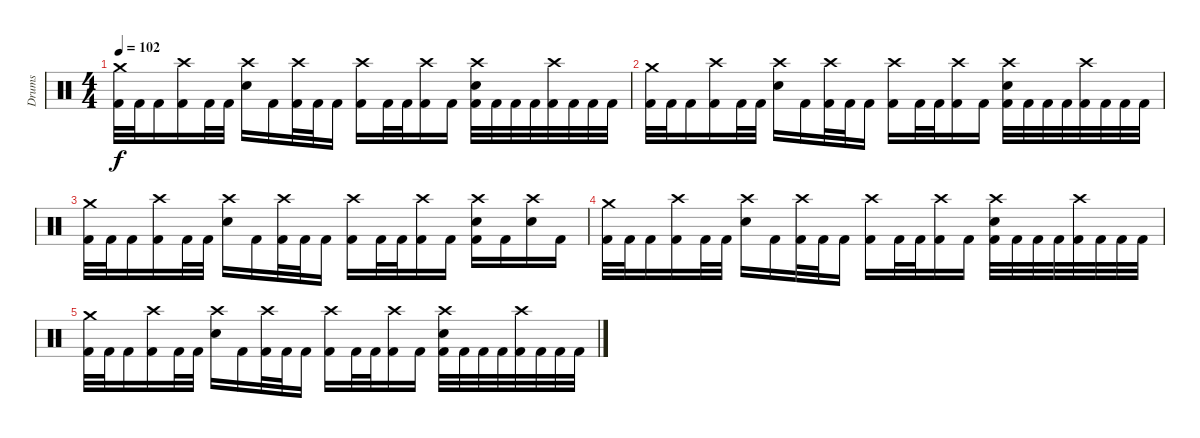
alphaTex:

\track ("Drums" "Drums") {instrument percussion}
\staff {score}
\articulation defaults
\ts (4 4)
\tempo 102
\clef neutral
\ks c
("Crash medium (hit)" "Kick (hit) 2").32{dy f} "Kick (hit) 2".32 "Kick (hit) 2".16 ("Crash high (hit)" "Kick (hit) 2").16 "Kick (hit) 2".32 "Kick (hit) 2".32 ("Crash high (hit)" "Snare (hit) 2").16 "Kick (hit) 2".16 ("Crash high (hit)" "Kick (hit) 2").32 "Kick (hit) 2".32 "Kick (hit) 2".16 ("Crash high (hit)" "Kick (hit) 2").16 "Kick (hit) 2".32 "Kick (hit) 2".32 ("Crash high (hit)" "Kick (hit) 2").16 "Kick (hit) 2".16 ("Crash high (hit)" "Snare (hit) 2" "Kick (hit) 2").32 "Kick (hit) 2".32 "Kick (hit) 2".32 "Kick (hit) 2".32 ("Crash high (hit)" "Kick (hit) 2").32 "Kick (hit) 2".32 "Kick (hit) 2".32 "Kick (hit) 2".32 |
("Crash medium (hit)" "Kick (hit) 2").32 "Kick (hit) 2".32 "Kick (hit) 2".16 ("Crash high (hit)" "Kick (hit) 2").16 "Kick (hit) 2".32 "Kick (hit) 2".32 ("Crash high (hit)" "Snare (hit) 2").16 "Kick (hit) 2".16 ("Crash high (hit)" "Kick (hit) 2").32 "Kick (hit) 2".32 "Kick (hit) 2".16 ("Crash high (hit)" "Kick (hit) 2").16 "Kick (hit) 2".32 "Kick (hit) 2".32 ("Crash high (hit)" "Kick (hit) 2").16 "Kick (hit) 2".16 ("Crash high (hit)" "Snare (hit) 2" "Kick (hit) 2").32 "Kick (hit) 2".32 "Kick (hit) 2".32 "Kick (hit) 2".32 ("Crash high (hit)" "Kick (hit) 2").32 "Kick (hit) 2".32 "Kick (hit) 2".32 "Kick (hit) 2".32 |
("Crash medium (hit)" "Kick (hit) 2").32 "Kick (hit) 2".32 "Kick (hit) 2".16 ("Crash high (hit)" "Kick (hit) 2").16 "Kick (hit) 2".32 "Kick (hit) 2".32 ("Crash high (hit)" "Snare (hit) 2").16 "Kick (hit) 2".16 ("Crash high (hit)" "Kick (hit) 2").32 "Kick (hit) 2".32 "Kick (hit) 2".16 ("Crash high (hit)" "Kick (hit) 2").16 "Kick (hit) 2".32 "Kick (hit) 2".32 ("Crash high (hit)" "Kick (hit) 2").16 "Kick (hit) 2".16 ("Crash high (hit)" "Snare (hit) 2" "Kick (hit) 2").16 "Kick (hit) 2".16 ("Crash high (hit)" "Snare (hit) 2").16 "Kick (hit) 2".16 |
("Crash medium (hit)" "Kick (hit) 2").32 "Kick (hit) 2".32 "Kick (hit) 2".16 ("Crash high (hit)" "Kick (hit) 2").16 "Kick (hit) 2".32 "Kick (hit) 2".32 ("Crash high (hit)" "Snare (hit) 2").16 "Kick (hit) 2".16 ("Crash high (hit)" "Kick (hit) 2").32 "Kick (hit) 2".32 "Kick (hit) 2".16 ("Crash high (hit)" "Kick (hit) 2").16 "Kick (hit) 2".32 "Kick (hit) 2".32 ("Crash high (hit)" "Kick (hit) 2").16 "Kick (hit) 2".16 ("Crash high (hit)" "Snare (hit) 2" "Kick (hit) 2").32 "Kick (hit) 2".32 "Kick (hit) 2".32 "Kick (hit) 2".32 ("Crash high (hit)" "Kick (hit) 2").32 "Kick (hit) 2".32 "Kick (hit) 2".32 "Kick (hit) 2".32 |
("Crash medium (hit)" "Kick (hit) 2").32 "Kick (hit) 2".32 "Kick (hit) 2".16 ("Crash high (hit)" "Kick (hit) 2").16 "Kick (hit) 2".32 "Kick (hit) 2".32 ("Crash high (hit)" "Snare (hit) 2").16 "Kick (hit) 2".16 ("Crash high (hit)" "Kick (hit) 2").32 "Kick (hit) 2".32 "Kick (hit) 2".16 ("Crash high (hit)" "Kick (hit) 2").16 "Kick (hit) 2".32 "Kick (hit) 2".32 ("Crash high (hit)" "Kick (hit) 2").16 "Kick (hit) 2".16 ("Crash high (hit)" "Snare (hit) 2" "Kick (hit) 2").32 "Kick (hit) 2".32 "Kick (hit) 2".32 "Kick (hit) 2".32 ("Crash high (hit)" "Kick (hit) 2").32 "Kick (hit) 2".32 "Kick (hit) 2".32 "Kick (hit) 2".32
